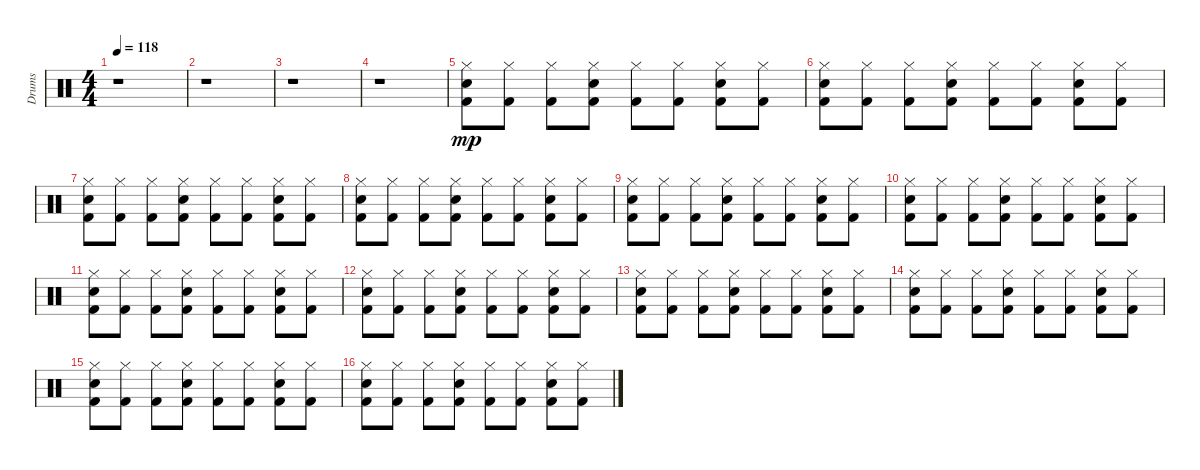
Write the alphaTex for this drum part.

\track ("Drums" "Drums") {instrument percussion}
\staff {score}
\articulation defaults
\ts (4 4)
\tempo 118
\clef neutral
\ks c
r.1{dy mp} |
r.1 |
r.1 |
r.1 |
("Hi-Hat (closed)" "Kick (hit) 2" "Snare (hit) 2").8 ("Hi-Hat (closed)" "Kick (hit) 2").8 ("Hi-Hat (closed)" "Kick (hit) 2").8 ("Hi-Hat (closed)" "Kick (hit) 2" "Snare (hit) 2").8 ("Hi-Hat (closed)" "Kick (hit) 2").8 ("Hi-Hat (closed)" "Kick (hit) 2").8 ("Hi-Hat (closed)" "Kick (hit) 2" "Snare (hit) 2").8 ("Hi-Hat (closed)" "Kick (hit) 2").8 |
("Hi-Hat (closed)" "Kick (hit) 2" "Snare (hit) 2").8 ("Hi-Hat (closed)" "Kick (hit) 2").8 ("Hi-Hat (closed)" "Kick (hit) 2").8 ("Hi-Hat (closed)" "Snare (hit) 2" "Kick (hit) 2").8 ("Hi-Hat (closed)" "Kick (hit) 2").8 ("Hi-Hat (closed)" "Kick (hit) 2").8 ("Hi-Hat (closed)" "Kick (hit) 2" "Snare (hit) 2").8 ("Hi-Hat (closed)" "Kick (hit) 2").8 |
("Hi-Hat (closed)" "Kick (hit) 2" "Snare (hit) 2").8 ("Hi-Hat (closed)" "Kick (hit) 2").8 ("Hi-Hat (closed)" "Kick (hit) 2").8 ("Hi-Hat (closed)" "Snare (hit) 2" "Kick (hit) 2").8 ("Hi-Hat (closed)" "Kick (hit) 2").8 ("Hi-Hat (closed)" "Kick (hit) 2").8 ("Hi-Hat (closed)" "Kick (hit) 2" "Snare (hit) 2").8 ("Hi-Hat (closed)" "Kick (hit) 2").8 |
("Hi-Hat (closed)" "Kick (hit) 2" "Snare (hit) 2").8 ("Hi-Hat (closed)" "Kick (hit) 2").8 ("Hi-Hat (closed)" "Kick (hit) 2").8 ("Hi-Hat (closed)" "Snare (hit) 2" "Kick (hit) 2").8 ("Hi-Hat (closed)" "Kick (hit) 2").8 ("Hi-Hat (closed)" "Kick (hit) 2").8 ("Hi-Hat (closed)" "Snare (hit) 2" "Kick (hit) 2").8 ("Hi-Hat (closed)" "Kick (hit) 2").8 |
("Hi-Hat (closed)" "Kick (hit) 2" "Snare (hit) 2").8 ("Hi-Hat (closed)" "Kick (hit) 2").8 ("Hi-Hat (closed)" "Kick (hit) 2").8 ("Hi-Hat (closed)" "Kick (hit) 2" "Snare (hit) 2").8 ("Hi-Hat (closed)" "Kick (hit) 2").8 ("Hi-Hat (closed)" "Kick (hit) 2").8 ("Hi-Hat (closed)" "Snare (hit) 2" "Kick (hit) 2").8 ("Hi-Hat (closed)" "Kick (hit) 2").8 |
("Hi-Hat (closed)" "Kick (hit) 2" "Snare (hit) 2").8 ("Hi-Hat (closed)" "Kick (hit) 2").8 ("Hi-Hat (closed)" "Kick (hit) 2").8 ("Hi-Hat (closed)" "Snare (hit) 2" "Kick (hit) 2").8 ("Hi-Hat (closed)" "Kick (hit) 2").8 ("Hi-Hat (closed)" "Kick (hit) 2").8 ("Hi-Hat (closed)" "Kick (hit) 2" "Snare (hit) 2").8 ("Hi-Hat (closed)" "Kick (hit) 2").8 |
("Hi-Hat (closed)" "Kick (hit) 2" "Snare (hit) 2").8 ("Hi-Hat (closed)" "Kick (hit) 2").8 ("Hi-Hat (closed)" "Kick (hit) 2").8 ("Hi-Hat (closed)" "Snare (hit) 2" "Kick (hit) 2").8 ("Hi-Hat (closed)" "Kick (hit) 2").8 ("Hi-Hat (closed)" "Kick (hit) 2").8 ("Hi-Hat (closed)" "Kick (hit) 2" "Snare (hit) 2").8 ("Hi-Hat (closed)" "Kick (hit) 2").8 |
("Hi-Hat (closed)" "Kick (hit) 2" "Snare (hit) 2").8 ("Hi-Hat (closed)" "Kick (hit) 2").8 ("Hi-Hat (closed)" "Kick (hit) 2").8 ("Hi-Hat (closed)" "Kick (hit) 2" "Snare (hit) 2").8 ("Hi-Hat (closed)" "Kick (hit) 2").8 ("Hi-Hat (closed)" "Kick (hit) 2").8 ("Hi-Hat (closed)" "Kick (hit) 2" "Snare (hit) 2").8 ("Hi-Hat (closed)" "Kick (hit) 2").8 |
("Hi-Hat (closed)" "Kick (hit) 2" "Snare (hit) 2").8 ("Hi-Hat (closed)" "Kick (hit) 2").8 ("Hi-Hat (closed)" "Kick (hit) 2").8 ("Hi-Hat (closed)" "Kick (hit) 2" "Snare (hit) 2").8 ("Hi-Hat (closed)" "Kick (hit) 2").8 ("Hi-Hat (closed)" "Kick (hit) 2").8 ("Hi-Hat (closed)" "Kick (hit) 2" "Snare (hit) 2").8 ("Hi-Hat (closed)" "Kick (hit) 2").8 |
("Hi-Hat (closed)" "Kick (hit) 2" "Snare (hit) 2").8 ("Hi-Hat (closed)" "Kick (hit) 2").8 ("Hi-Hat (closed)" "Kick (hit) 2").8 ("Hi-Hat (closed)" "Snare (hit) 2" "Kick (hit) 2").8 ("Hi-Hat (closed)" "Kick (hit) 2").8 ("Hi-Hat (closed)" "Kick (hit) 2").8 ("Hi-Hat (closed)" "Kick (hit) 2" "Snare (hit) 2").8 ("Hi-Hat (closed)" "Kick (hit) 2").8 |
("Hi-Hat (closed)" "Kick (hit) 2" "Snare (hit) 2").8 ("Hi-Hat (closed)" "Kick (hit) 2").8 ("Hi-Hat (closed)" "Kick (hit) 2").8 ("Hi-Hat (closed)" "Kick (hit) 2" "Snare (hit) 2").8 ("Hi-Hat (closed)" "Kick (hit) 2").8 ("Hi-Hat (closed)" "Kick (hit) 2").8 ("Hi-Hat (closed)" "Snare (hit) 2" "Kick (hit) 2").8 ("Hi-Hat (closed)" "Kick (hit) 2").8 |
("Hi-Hat (closed)" "Kick (hit) 2" "Snare (hit) 2").8 ("Hi-Hat (closed)" "Kick (hit) 2").8 ("Hi-Hat (closed)" "Kick (hit) 2").8 ("Hi-Hat (closed)" "Kick (hit) 2" "Snare (hit) 2").8 ("Hi-Hat (closed)" "Kick (hit) 2").8 ("Hi-Hat (closed)" "Kick (hit) 2").8 ("Hi-Hat (closed)" "Snare (hit) 2" "Kick (hit) 2").8 ("Hi-Hat (closed)" "Kick (hit) 2").8
